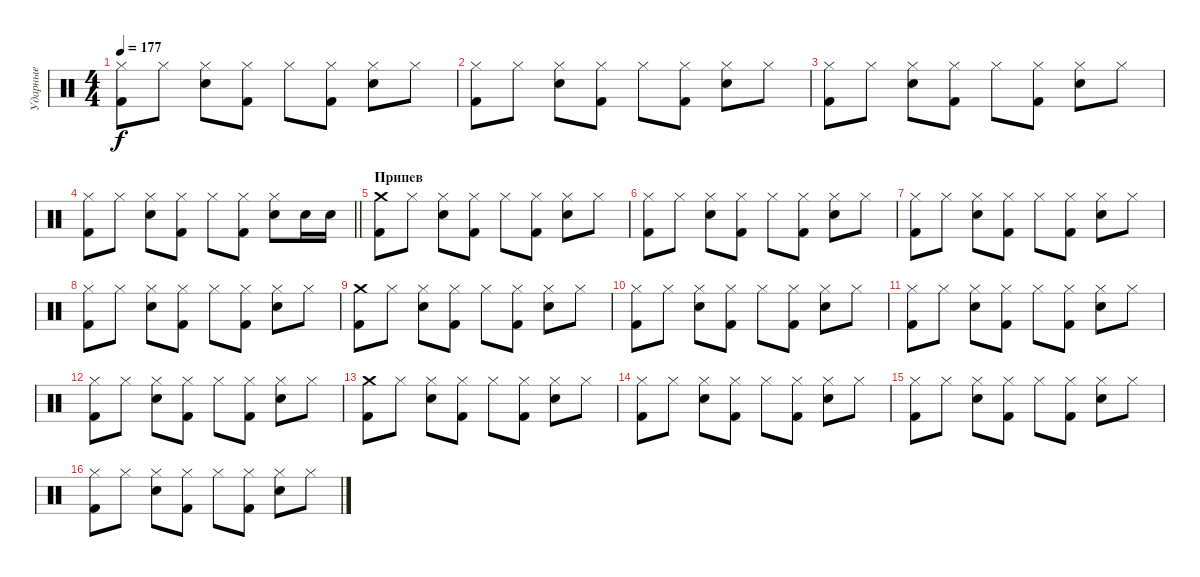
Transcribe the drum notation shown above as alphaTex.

\track ("Ударные" "Ударные") {instrument percussion}
\staff {score}
\articulation defaults
\ts (4 4)
\tempo 177
\clef neutral
\ks c
("Hi-Hat (closed)" "Kick (hit) 2").8{dy f} "Hi-Hat (closed)".8 ("Hi-Hat (closed)" "Snare (hit) 2").8 ("Hi-Hat (closed)" "Kick (hit) 2").8 "Hi-Hat (closed)".8 ("Hi-Hat (closed)" "Kick (hit) 2").8 ("Hi-Hat (closed)" "Snare (hit) 2").8 "Hi-Hat (closed)".8 |
("Hi-Hat (closed)" "Kick (hit) 2").8 "Hi-Hat (closed)".8 ("Hi-Hat (closed)" "Snare (hit) 2").8 ("Hi-Hat (closed)" "Kick (hit) 2").8 "Hi-Hat (closed)".8 ("Hi-Hat (closed)" "Kick (hit) 2").8 ("Hi-Hat (closed)" "Snare (hit) 2").8 "Hi-Hat (closed)".8 |
("Hi-Hat (closed)" "Kick (hit) 2").8 "Hi-Hat (closed)".8 ("Hi-Hat (closed)" "Snare (hit) 2").8 ("Hi-Hat (closed)" "Kick (hit) 2").8 "Hi-Hat (closed)".8 ("Hi-Hat (closed)" "Kick (hit) 2").8 ("Hi-Hat (closed)" "Snare (hit) 2").8 "Hi-Hat (closed)".8 |
\barLineRight lightlight
("Hi-Hat (closed)" "Kick (hit) 2").8 "Hi-Hat (closed)".8 ("Hi-Hat (closed)" "Snare (hit) 2").8 ("Hi-Hat (closed)" "Kick (hit) 2").8 "Hi-Hat (closed)".8 ("Hi-Hat (closed)" "Kick (hit) 2").8 ("Hi-Hat (closed)" "Snare (hit) 2").8 "Snare (hit) 2".16 "Snare (hit) 2".16 |
\section ("" "Припев")
("Crash medium (hit)" "Kick (hit) 2").8 "Hi-Hat (closed)".8 ("Hi-Hat (closed)" "Snare (hit) 2").8 ("Hi-Hat (closed)" "Kick (hit) 2").8 "Hi-Hat (closed)".8 ("Hi-Hat (closed)" "Kick (hit) 2").8 ("Hi-Hat (closed)" "Snare (hit) 2").8 "Hi-Hat (closed)".8 |
("Hi-Hat (closed)" "Kick (hit) 2").8 "Hi-Hat (closed)".8 ("Hi-Hat (closed)" "Snare (hit) 2").8 ("Hi-Hat (closed)" "Kick (hit) 2").8 "Hi-Hat (closed)".8 ("Hi-Hat (closed)" "Kick (hit) 2").8 ("Hi-Hat (closed)" "Snare (hit) 2").8 "Hi-Hat (closed)".8 |
("Hi-Hat (closed)" "Kick (hit) 2").8 "Hi-Hat (closed)".8 ("Hi-Hat (closed)" "Snare (hit) 2").8 ("Hi-Hat (closed)" "Kick (hit) 2").8 "Hi-Hat (closed)".8 ("Hi-Hat (closed)" "Kick (hit) 2").8 ("Hi-Hat (closed)" "Snare (hit) 2").8 "Hi-Hat (closed)".8 |
("Hi-Hat (closed)" "Kick (hit) 2").8 "Hi-Hat (closed)".8 ("Hi-Hat (closed)" "Snare (hit) 2").8 ("Hi-Hat (closed)" "Kick (hit) 2").8 "Hi-Hat (closed)".8 ("Hi-Hat (closed)" "Kick (hit) 2").8 ("Hi-Hat (closed)" "Snare (hit) 2").8 "Hi-Hat (closed)".8 |
("Crash medium (hit)" "Kick (hit) 2").8 "Hi-Hat (closed)".8 ("Hi-Hat (closed)" "Snare (hit) 2").8 ("Hi-Hat (closed)" "Kick (hit) 2").8 "Hi-Hat (closed)".8 ("Hi-Hat (closed)" "Kick (hit) 2").8 ("Hi-Hat (closed)" "Snare (hit) 2").8 "Hi-Hat (closed)".8 |
("Hi-Hat (closed)" "Kick (hit) 2").8 "Hi-Hat (closed)".8 ("Hi-Hat (closed)" "Snare (hit) 2").8 ("Hi-Hat (closed)" "Kick (hit) 2").8 "Hi-Hat (closed)".8 ("Hi-Hat (closed)" "Kick (hit) 2").8 ("Hi-Hat (closed)" "Snare (hit) 2").8 "Hi-Hat (closed)".8 |
("Hi-Hat (closed)" "Kick (hit) 2").8 "Hi-Hat (closed)".8 ("Hi-Hat (closed)" "Snare (hit) 2").8 ("Hi-Hat (closed)" "Kick (hit) 2").8 "Hi-Hat (closed)".8 ("Hi-Hat (closed)" "Kick (hit) 2").8 ("Hi-Hat (closed)" "Snare (hit) 2").8 "Hi-Hat (closed)".8 |
("Hi-Hat (closed)" "Kick (hit) 2").8 "Hi-Hat (closed)".8 ("Hi-Hat (closed)" "Snare (hit) 2").8 ("Hi-Hat (closed)" "Kick (hit) 2").8 "Hi-Hat (closed)".8 ("Hi-Hat (closed)" "Kick (hit) 2").8 ("Hi-Hat (closed)" "Snare (hit) 2").8 "Hi-Hat (closed)".8 |
("Crash medium (hit)" "Kick (hit) 2").8 "Hi-Hat (closed)".8 ("Hi-Hat (closed)" "Snare (hit) 2").8 ("Hi-Hat (closed)" "Kick (hit) 2").8 "Hi-Hat (closed)".8 ("Hi-Hat (closed)" "Kick (hit) 2").8 ("Hi-Hat (closed)" "Snare (hit) 2").8 "Hi-Hat (closed)".8 |
("Hi-Hat (closed)" "Kick (hit) 2").8 "Hi-Hat (closed)".8 ("Hi-Hat (closed)" "Snare (hit) 2").8 ("Hi-Hat (closed)" "Kick (hit) 2").8 "Hi-Hat (closed)".8 ("Hi-Hat (closed)" "Kick (hit) 2").8 ("Hi-Hat (closed)" "Snare (hit) 2").8 "Hi-Hat (closed)".8 |
("Hi-Hat (closed)" "Kick (hit) 2").8 "Hi-Hat (closed)".8 ("Hi-Hat (closed)" "Snare (hit) 2").8 ("Hi-Hat (closed)" "Kick (hit) 2").8 "Hi-Hat (closed)".8 ("Hi-Hat (closed)" "Kick (hit) 2").8 ("Hi-Hat (closed)" "Snare (hit) 2").8 "Hi-Hat (closed)".8 |
("Hi-Hat (closed)" "Kick (hit) 2").8 "Hi-Hat (closed)".8 ("Hi-Hat (closed)" "Snare (hit) 2").8 ("Hi-Hat (closed)" "Kick (hit) 2").8 "Hi-Hat (closed)".8 ("Hi-Hat (closed)" "Kick (hit) 2").8 ("Hi-Hat (closed)" "Snare (hit) 2").8 "Hi-Hat (closed)".8
